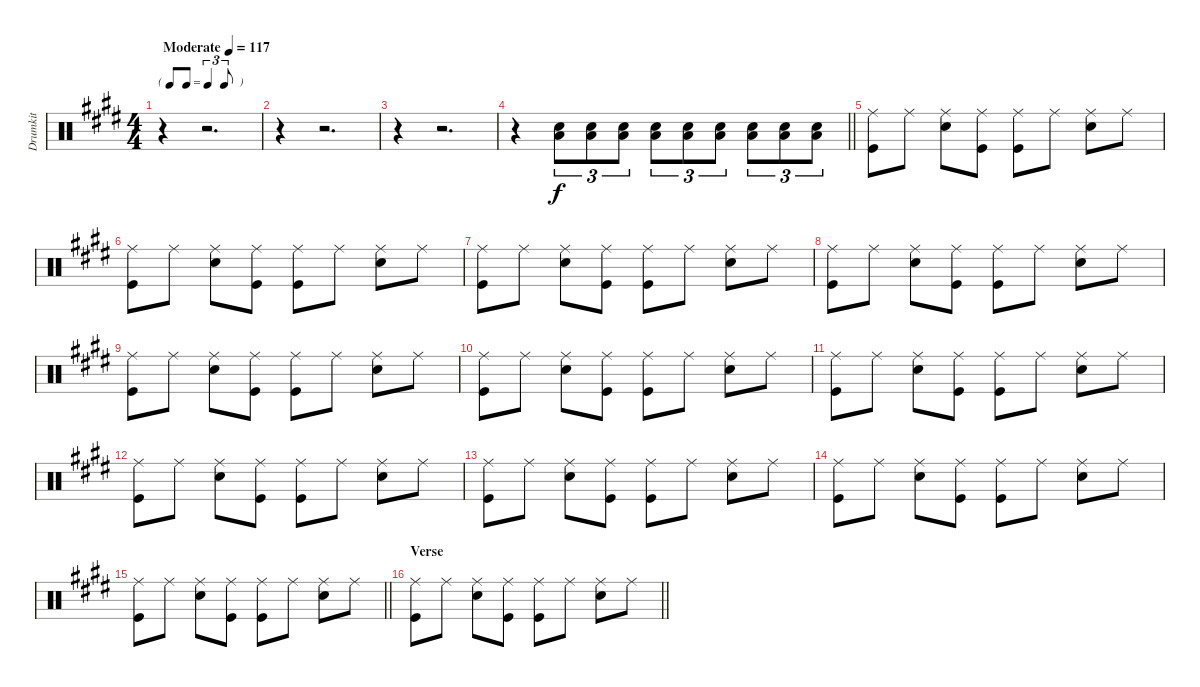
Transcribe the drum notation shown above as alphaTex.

\track ("Drumkit" "Drumkit") {instrument percussion}
\staff {score}
\articulation defaults
\ts (4 4)
\tf triplet8th
\tempo (117 "Moderate")
\clef neutral
\ks e
r.4{dy f} r.2{d} |
r.4 r.2{d} |
r.4 r.2{d} |
\barLineRight lightlight
r.4 ("Snare (hit) 2" "Low Floor Tom (hit)").8{tu (3 2)} ("Snare (hit) 2" "Low Floor Tom (hit)").8{tu (3 2)} ("Snare (hit) 2" "Low Floor Tom (hit)").8{tu (3 2)} ("Snare (hit) 2" "Low Floor Tom (hit)").8{tu (3 2)} ("Snare (hit) 2" "Low Floor Tom (hit)").8{tu (3 2)} ("Snare (hit) 2" "Low Floor Tom (hit)").8{tu (3 2)} ("Snare (hit) 2" "Low Floor Tom (hit)").8{tu (3 2)} ("Snare (hit) 2" "Low Floor Tom (hit)").8{tu (3 2)} ("Snare (hit) 2" "Low Floor Tom (hit)").8{tu (3 2)} |
("Ride (middle)" "Kick (hit)").8 "Ride (middle)".8 ("Ride (middle)" "Snare (hit) 2").8 ("Ride (middle)" "Kick (hit)").8 ("Ride (middle)" "Kick (hit)").8 "Ride (middle)".8 ("Ride (middle)" "Snare (hit) 2").8 "Ride (middle)".8 |
("Ride (middle)" "Kick (hit)").8 "Ride (middle)".8 ("Ride (middle)" "Snare (hit) 2").8 ("Ride (middle)" "Kick (hit)").8 ("Ride (middle)" "Kick (hit)").8 "Ride (middle)".8 ("Ride (middle)" "Snare (hit) 2").8 "Ride (middle)".8 |
("Ride (middle)" "Kick (hit)").8 "Ride (middle)".8 ("Ride (middle)" "Snare (hit) 2").8 ("Ride (middle)" "Kick (hit)").8 ("Ride (middle)" "Kick (hit)").8 "Ride (middle)".8 ("Ride (middle)" "Snare (hit) 2").8 "Ride (middle)".8 |
("Ride (middle)" "Kick (hit)").8 "Ride (middle)".8 ("Ride (middle)" "Snare (hit) 2").8 ("Ride (middle)" "Kick (hit)").8 ("Ride (middle)" "Kick (hit)").8 "Ride (middle)".8 ("Ride (middle)" "Snare (hit) 2").8 "Ride (middle)".8 |
("Ride (middle)" "Kick (hit)").8 "Ride (middle)".8 ("Ride (middle)" "Snare (hit) 2").8 ("Ride (middle)" "Kick (hit)").8 ("Ride (middle)" "Kick (hit)").8 "Ride (middle)".8 ("Ride (middle)" "Snare (hit) 2").8 "Ride (middle)".8 |
("Ride (middle)" "Kick (hit)").8 "Ride (middle)".8 ("Ride (middle)" "Snare (hit) 2").8 ("Ride (middle)" "Kick (hit)").8 ("Ride (middle)" "Kick (hit)").8 "Ride (middle)".8 ("Ride (middle)" "Snare (hit) 2").8 "Ride (middle)".8 |
("Ride (middle)" "Kick (hit)").8 "Ride (middle)".8 ("Ride (middle)" "Snare (hit) 2").8 ("Ride (middle)" "Kick (hit)").8 ("Ride (middle)" "Kick (hit)").8 "Ride (middle)".8 ("Ride (middle)" "Snare (hit) 2").8 "Ride (middle)".8 |
("Ride (middle)" "Kick (hit)").8 "Ride (middle)".8 ("Ride (middle)" "Snare (hit) 2").8 ("Ride (middle)" "Kick (hit)").8 ("Ride (middle)" "Kick (hit)").8 "Ride (middle)".8 ("Ride (middle)" "Snare (hit) 2").8 "Ride (middle)".8 |
("Ride (middle)" "Kick (hit)").8 "Ride (middle)".8 ("Ride (middle)" "Snare (hit) 2").8 ("Ride (middle)" "Kick (hit)").8 ("Ride (middle)" "Kick (hit)").8 "Ride (middle)".8 ("Ride (middle)" "Snare (hit) 2").8 "Ride (middle)".8 |
("Ride (middle)" "Kick (hit)").8 "Ride (middle)".8 ("Ride (middle)" "Snare (hit) 2").8 ("Ride (middle)" "Kick (hit)").8 ("Ride (middle)" "Kick (hit)").8 "Ride (middle)".8 ("Ride (middle)" "Snare (hit) 2").8 "Ride (middle)".8 |
\barLineRight lightlight
("Ride (middle)" "Kick (hit)").8 "Ride (middle)".8 ("Ride (middle)" "Snare (hit) 2").8 ("Ride (middle)" "Kick (hit)").8 ("Ride (middle)" "Kick (hit)").8 "Ride (middle)".8 ("Ride (middle)" "Snare (hit) 2").8 "Ride (middle)".8 |
\section ("" "Verse")
\barLineRight lightlight
("Ride (middle)" "Kick (hit)").8 "Ride (middle)".8 ("Ride (middle)" "Snare (hit) 2").8 ("Ride (middle)" "Kick (hit)").8 ("Ride (middle)" "Kick (hit)").8 "Ride (middle)".8 ("Ride (middle)" "Snare (hit) 2").8 "Ride (middle)".8
